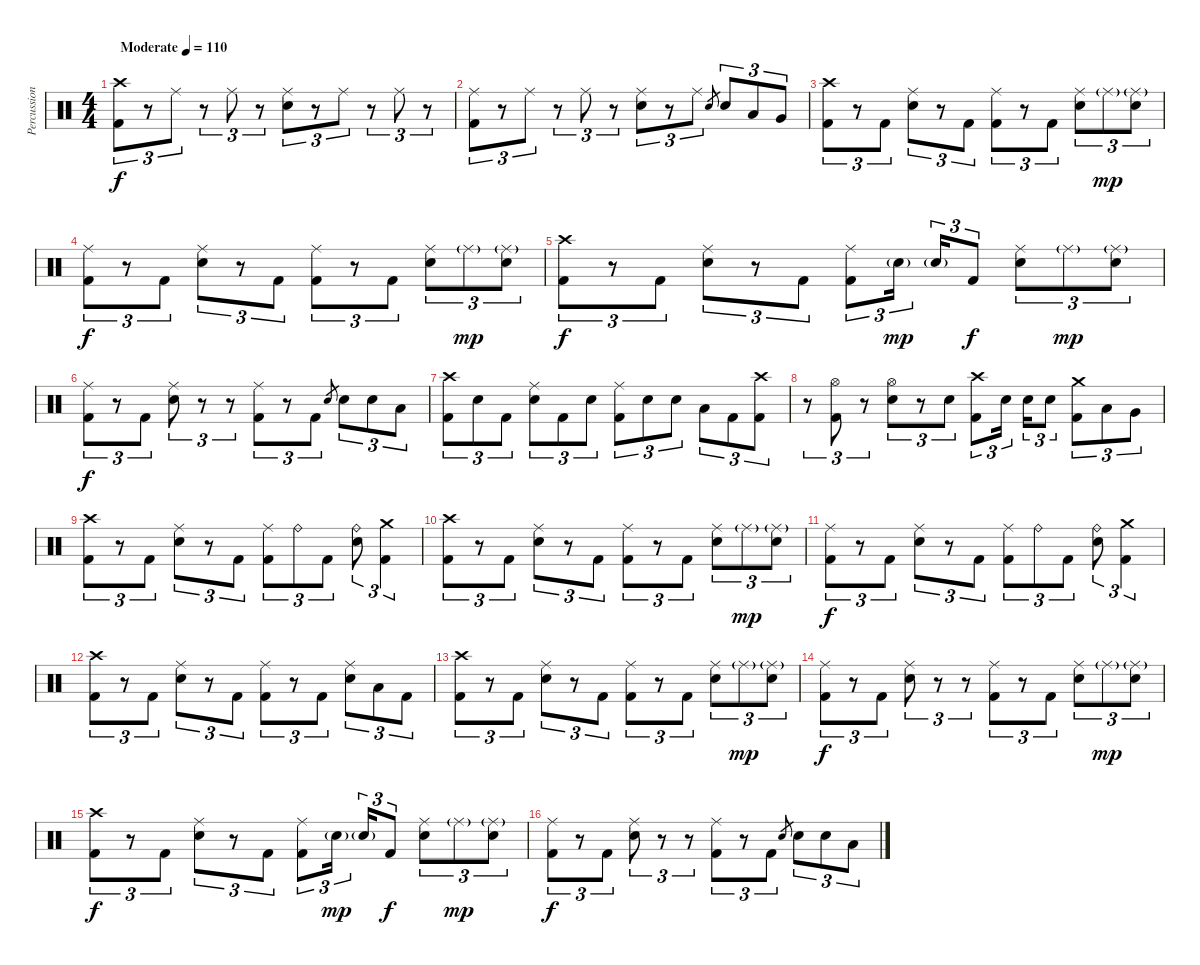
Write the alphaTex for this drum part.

\track ("Percussion" "Percussion") {instrument percussion}
\staff {score}
\articulation defaults
\ts (4 4)
\tempo (110 "Moderate")
\clef neutral
\ks c
("Crash high (hit)" "Kick (hit) 2").8{tu (3 2) dy f} r.8{tu (3 2)} "Ride (middle)".8{tu (3 2)} r.8{tu (3 2)} "Ride (middle)".8{tu (3 2)} r.8{tu (3 2)} ("Ride (middle)" "Electric Snare (hit)").8{tu (3 2)} r.8{tu (3 2)} "Ride (middle)".8{tu (3 2)} r.8{tu (3 2)} "Ride (middle)".8{tu (3 2)} r.8{tu (3 2)} |
("Ride (middle)" "Kick (hit) 2").8{tu (3 2)} r.8{tu (3 2)} "Ride (middle)".8{tu (3 2)} r.8{tu (3 2)} "Ride (middle)".8{tu (3 2)} r.8{tu (3 2)} ("Ride (middle)" "Electric Snare (hit)").8{tu (3 2)} r.8{tu (3 2)} "Ride (middle)".8{tu (3 2)} "Electric Snare (hit)".8{gr} "Electric Snare (hit)".8{tu (3 2)} "Low Tom (hit)".8{tu (3 2)} "Very Low Tom (hit)".8{tu (3 2)} |
("Crash high (hit)" "Kick (hit) 2").8{tu (3 2)} r.8{tu (3 2)} "Kick (hit) 2".8{tu (3 2)} ("Ride (middle)" "Electric Snare (hit)").8{tu (3 2)} r.8{tu (3 2)} "Kick (hit) 2".8{tu (3 2)} ("Ride (middle)" "Kick (hit) 2").8{tu (3 2)} r.8{tu (3 2)} "Kick (hit) 2".8{tu (3 2)} ("Ride (middle)" "Electric Snare (hit)").8{tu (3 2)} "Ride (middle)"{g}.8{tu (3 2) dy mp} ("Ride (middle)"{g} "Electric Snare (hit)").8{tu (3 2)} |
("Ride (middle)" "Kick (hit) 2").8{tu (3 2) dy f} r.8{tu (3 2)} "Kick (hit) 2".8{tu (3 2)} ("Ride (middle)" "Electric Snare (hit)").8{tu (3 2)} r.8{tu (3 2)} "Kick (hit) 2".8{tu (3 2)} ("Ride (middle)" "Kick (hit) 2").8{tu (3 2)} r.8{tu (3 2)} "Kick (hit) 2".8{tu (3 2)} ("Ride (middle)" "Electric Snare (hit)").8{tu (3 2)} "Ride (middle)"{g}.8{tu (3 2) dy mp} ("Ride (middle)"{g} "Electric Snare (hit)").8{tu (3 2)} |
("Crash high (hit)" "Kick (hit) 2").8{tu (3 2) dy f} r.8{tu (3 2)} "Kick (hit) 2".8{tu (3 2)} ("Ride (middle)" "Electric Snare (hit)").8{tu (3 2)} r.8{tu (3 2)} "Kick (hit) 2".8{tu (3 2)} ("Ride (middle)" "Kick (hit) 2").8{tu (3 2)} "Electric Snare (hit)"{g}.16{tu (3 2) dy mp beam splitsecondary} "Electric Snare (hit)"{g}.16{tu (3 2)} "Kick (hit) 2".8{tu (3 2) dy f} ("Ride (middle)" "Electric Snare (hit)").8{tu (3 2)} "Ride (middle)"{g}.8{tu (3 2) dy mp} ("Ride (middle)"{g} "Electric Snare (hit)").8{tu (3 2)} |
("Ride (middle)" "Kick (hit) 2").8{tu (3 2) dy f} r.8{tu (3 2)} "Kick (hit) 2".8{tu (3 2)} ("Ride (middle)" "Electric Snare (hit)").8{tu (3 2)} r.8{tu (3 2)} r.8{tu (3 2)} ("Ride (middle)" "Kick (hit) 2").8{tu (3 2)} r.8{tu (3 2)} "Kick (hit) 2".8{tu (3 2)} "Electric Snare (hit)".8{gr} "Electric Snare (hit)".8{tu (3 2)} "Electric Snare (hit)".8{tu (3 2)} "Low Tom (hit)".8{tu (3 2)} |
("Crash high (hit)" "Kick (hit) 2").8{tu (3 2)} "Electric Snare (hit)".8{tu (3 2)} "Kick (hit) 2".8{tu (3 2)} ("Ride (middle)" "Electric Snare (hit)").8{tu (3 2)} "Kick (hit) 2".8{tu (3 2)} "Electric Snare (hit)".8{tu (3 2)} ("Ride (middle)" "Kick (hit) 2").8{tu (3 2)} "Electric Snare (hit)".8{tu (3 2)} "Electric Snare (hit)".8{tu (3 2)} "Low Tom (hit)".8{tu (3 2)} "Kick (hit) 2".8{tu (3 2)} ("Crash high (hit)" "Kick (hit) 2").8{tu (3 2)} |
r.8{tu (3 2)} ("Hi-Hat (open)" "Kick (hit) 2").8{tu (3 2)} r.8{tu (3 2)} ("Hi-Hat (open)" "Electric Snare (hit)").8{tu (3 2)} r.8{tu (3 2)} "Electric Snare (hit)".8{tu (3 2)} ("Crash high (hit)" "Kick (hit) 2").8{tu (3 2)} "Electric Snare (hit)".16{tu (3 2) beam splitsecondary} "Electric Snare (hit)".16{tu (3 2)} "Electric Snare (hit)".8{tu (3 2)} ("Crash medium (hit)" "Kick (hit) 2").8{tu (3 2)} "Low Tom (hit)".8{tu (3 2)} "Very Low Tom (hit)".8{tu (3 2)} |
("Crash high (hit)" "Kick (hit) 2").8{tu (3 2)} r.8{tu (3 2)} "Kick (hit) 2".8{tu (3 2)} ("Ride (middle)" "Electric Snare (hit)").8{tu (3 2)} r.8{tu (3 2)} "Kick (hit) 2".8{tu (3 2)} ("Ride (middle)" "Kick (hit) 2").8{tu (3 2)} "Ride (bell)".8{tu (3 2)} "Kick (hit) 2".8{tu (3 2)} ("Ride (bell)" "Electric Snare (hit)").8{tu (3 2)} ("Crash medium (hit)" "Kick (hit) 2").4{tu (3 2)} |
("Crash high (hit)" "Kick (hit) 2").8{tu (3 2)} r.8{tu (3 2)} "Kick (hit) 2".8{tu (3 2)} ("Ride (middle)" "Electric Snare (hit)").8{tu (3 2)} r.8{tu (3 2)} "Kick (hit) 2".8{tu (3 2)} ("Ride (middle)" "Kick (hit) 2").8{tu (3 2)} r.8{tu (3 2)} "Kick (hit) 2".8{tu (3 2)} ("Ride (middle)" "Electric Snare (hit)").8{tu (3 2)} "Ride (middle)"{g}.8{tu (3 2) dy mp} ("Ride (middle)"{g} "Electric Snare (hit)").8{tu (3 2)} |
("Ride (middle)" "Kick (hit) 2").8{tu (3 2) dy f} r.8{tu (3 2)} "Kick (hit) 2".8{tu (3 2)} ("Ride (middle)" "Electric Snare (hit)").8{tu (3 2)} r.8{tu (3 2)} "Kick (hit) 2".8{tu (3 2)} ("Ride (middle)" "Kick (hit) 2").8{tu (3 2)} "Ride (bell)".8{tu (3 2)} "Kick (hit) 2".8{tu (3 2)} ("Ride (bell)" "Electric Snare (hit)").8{tu (3 2)} ("Crash medium (hit)" "Kick (hit) 2").4{tu (3 2)} |
("Crash high (hit)" "Kick (hit) 2").8{tu (3 2)} r.8{tu (3 2)} "Kick (hit) 2".8{tu (3 2)} ("Ride (middle)" "Electric Snare (hit)").8{tu (3 2)} r.8{tu (3 2)} "Kick (hit) 2".8{tu (3 2)} ("Ride (middle)" "Kick (hit) 2").8{tu (3 2)} r.8{tu (3 2)} "Kick (hit) 2".8{tu (3 2)} ("Ride (middle)" "Electric Snare (hit)").8{tu (3 2)} "Low Tom (hit)".8{tu (3 2)} "Kick (hit) 2".8{tu (3 2)} |
("Crash high (hit)" "Kick (hit) 2").8{tu (3 2)} r.8{tu (3 2)} "Kick (hit) 2".8{tu (3 2)} ("Ride (middle)" "Electric Snare (hit)").8{tu (3 2)} r.8{tu (3 2)} "Kick (hit) 2".8{tu (3 2)} ("Ride (middle)" "Kick (hit) 2").8{tu (3 2)} r.8{tu (3 2)} "Kick (hit) 2".8{tu (3 2)} ("Ride (middle)" "Electric Snare (hit)").8{tu (3 2)} "Ride (middle)"{g}.8{tu (3 2) dy mp} ("Ride (middle)"{g} "Electric Snare (hit)").8{tu (3 2)} |
("Ride (middle)" "Kick (hit) 2").8{tu (3 2) dy f} r.8{tu (3 2)} "Kick (hit) 2".8{tu (3 2)} ("Ride (middle)" "Electric Snare (hit)").8{tu (3 2)} r.8{tu (3 2)} r.8{tu (3 2)} ("Ride (middle)" "Kick (hit) 2").8{tu (3 2)} r.8{tu (3 2)} "Kick (hit) 2".8{tu (3 2)} ("Ride (middle)" "Electric Snare (hit)").8{tu (3 2)} "Ride (middle)"{g}.8{tu (3 2) dy mp} ("Ride (middle)"{g} "Electric Snare (hit)").8{tu (3 2)} |
("Crash high (hit)" "Kick (hit) 2").8{tu (3 2) dy f} r.8{tu (3 2)} "Kick (hit) 2".8{tu (3 2)} ("Ride (middle)" "Electric Snare (hit)").8{tu (3 2)} r.8{tu (3 2)} "Kick (hit) 2".8{tu (3 2)} ("Ride (middle)" "Kick (hit) 2").8{tu (3 2)} "Electric Snare (hit)"{g}.16{tu (3 2) dy mp beam splitsecondary} "Electric Snare (hit)"{g}.16{tu (3 2)} "Kick (hit) 2".8{tu (3 2) dy f} ("Ride (middle)" "Electric Snare (hit)").8{tu (3 2)} "Ride (middle)"{g}.8{tu (3 2) dy mp} ("Ride (middle)"{g} "Electric Snare (hit)").8{tu (3 2)} |
("Ride (middle)" "Kick (hit) 2").8{tu (3 2) dy f} r.8{tu (3 2)} "Kick (hit) 2".8{tu (3 2)} ("Ride (middle)" "Electric Snare (hit)").8{tu (3 2)} r.8{tu (3 2)} r.8{tu (3 2)} ("Ride (middle)" "Kick (hit) 2").8{tu (3 2)} r.8{tu (3 2)} "Kick (hit) 2".8{tu (3 2)} "Electric Snare (hit)".8{gr} "Electric Snare (hit)".8{tu (3 2)} "Electric Snare (hit)".8{tu (3 2)} "Low Tom (hit)".8{tu (3 2)}
